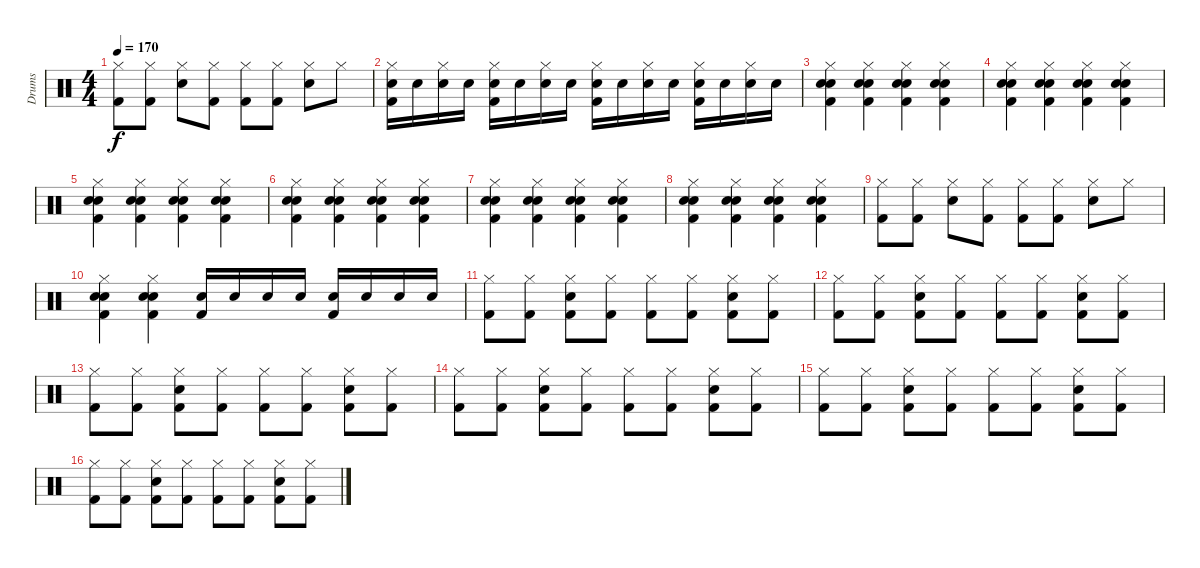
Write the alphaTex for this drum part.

\track ("Drums" "Drums") {instrument percussion}
\staff {score}
\articulation defaults
\ts (4 4)
\tempo 170
\clef neutral
\ks c
("Hi-Hat (closed)" "Kick (hit) 2").8{dy f} ("Hi-Hat (closed)" "Kick (hit) 2").8 ("Hi-Hat (closed)" "Electric Snare (hit)").8 ("Hi-Hat (closed)" "Kick (hit) 2").8 ("Hi-Hat (closed)" "Kick (hit) 2").8 ("Hi-Hat (closed)" "Kick (hit) 2").8 ("Hi-Hat (closed)" "Electric Snare (hit)").8 "Hi-Hat (closed)".8 |
("Hi-Hat (closed)" "Electric Snare (hit)" "Kick (hit) 2").16 "Electric Snare (hit)".16 ("Hi-Hat (closed)" "Electric Snare (hit)").16 "Electric Snare (hit)".16 ("Hi-Hat (closed)" "Electric Snare (hit)" "Kick (hit) 2").16 "Electric Snare (hit)".16 ("Hi-Hat (closed)" "Electric Snare (hit)").16 "Electric Snare (hit)".16 ("Hi-Hat (closed)" "Electric Snare (hit)" "Kick (hit) 2").16 "Electric Snare (hit)".16 ("Hi-Hat (closed)" "Electric Snare (hit)").16 "Electric Snare (hit)".16 ("Hi-Hat (closed)" "Electric Snare (hit)" "Kick (hit) 2").16 "Electric Snare (hit)".16 ("Hi-Hat (closed)" "Electric Snare (hit)").16 "Electric Snare (hit)".16 |
("Snare (hit) 2" "Electric Snare (hit)" "Kick (hit) 2" "Hi-Hat (closed)").4 ("Snare (hit) 2" "Electric Snare (hit)" "Kick (hit) 2" "Hi-Hat (closed)").4 ("Snare (hit) 2" "Electric Snare (hit)" "Kick (hit) 2" "Hi-Hat (closed)").4 ("Snare (hit) 2" "Electric Snare (hit)" "Kick (hit) 2" "Hi-Hat (closed)").4 |
("Snare (hit) 2" "Electric Snare (hit)" "Kick (hit) 2" "Hi-Hat (closed)").4 ("Snare (hit) 2" "Electric Snare (hit)" "Kick (hit) 2" "Hi-Hat (closed)").4 ("Snare (hit) 2" "Electric Snare (hit)" "Kick (hit) 2" "Hi-Hat (closed)").4 ("Snare (hit) 2" "Electric Snare (hit)" "Kick (hit) 2" "Hi-Hat (closed)").4 |
("Snare (hit) 2" "Electric Snare (hit)" "Kick (hit) 2" "Hi-Hat (closed)").4 ("Snare (hit) 2" "Electric Snare (hit)" "Kick (hit) 2" "Hi-Hat (closed)").4 ("Snare (hit) 2" "Electric Snare (hit)" "Kick (hit) 2" "Hi-Hat (closed)").4 ("Snare (hit) 2" "Electric Snare (hit)" "Kick (hit) 2" "Hi-Hat (closed)").4 |
("Snare (hit) 2" "Electric Snare (hit)" "Kick (hit) 2" "Hi-Hat (closed)").4 ("Snare (hit) 2" "Electric Snare (hit)" "Kick (hit) 2" "Hi-Hat (closed)").4 ("Snare (hit) 2" "Electric Snare (hit)" "Kick (hit) 2" "Hi-Hat (closed)").4 ("Snare (hit) 2" "Electric Snare (hit)" "Kick (hit) 2" "Hi-Hat (closed)").4 |
("Snare (hit) 2" "Electric Snare (hit)" "Kick (hit) 2" "Hi-Hat (closed)").4 ("Snare (hit) 2" "Electric Snare (hit)" "Kick (hit) 2" "Hi-Hat (closed)").4 ("Snare (hit) 2" "Electric Snare (hit)" "Kick (hit) 2" "Hi-Hat (closed)").4 ("Snare (hit) 2" "Electric Snare (hit)" "Kick (hit) 2" "Hi-Hat (closed)").4 |
("Snare (hit) 2" "Electric Snare (hit)" "Kick (hit) 2" "Hi-Hat (closed)").4 ("Snare (hit) 2" "Electric Snare (hit)" "Kick (hit) 2" "Hi-Hat (closed)").4 ("Snare (hit) 2" "Electric Snare (hit)" "Kick (hit) 2" "Hi-Hat (closed)").4 ("Snare (hit) 2" "Electric Snare (hit)" "Kick (hit) 2" "Hi-Hat (closed)").4 |
("Hi-Hat (closed)" "Kick (hit) 2").8 ("Hi-Hat (closed)" "Kick (hit) 2").8 ("Hi-Hat (closed)" "Electric Snare (hit)").8 ("Hi-Hat (closed)" "Kick (hit) 2").8 ("Hi-Hat (closed)" "Kick (hit) 2").8 ("Hi-Hat (closed)" "Kick (hit) 2").8 ("Hi-Hat (closed)" "Electric Snare (hit)").8 "Hi-Hat (closed)".8 |
("Snare (hit) 2" "Electric Snare (hit)" "Kick (hit) 2" "Hi-Hat (closed)").4 ("Snare (hit) 2" "Electric Snare (hit)" "Kick (hit) 2" "Hi-Hat (closed)").4 ("Electric Snare (hit)" "Kick (hit) 2").16 "Electric Snare (hit)".16 "Electric Snare (hit)".16 "Electric Snare (hit)".16 ("Electric Snare (hit)" "Kick (hit) 2").16 "Electric Snare (hit)".16 "Electric Snare (hit)".16 "Electric Snare (hit)".16 |
("Hi-Hat (closed)" "Kick (hit) 2").8 ("Hi-Hat (closed)" "Kick (hit) 2").8 ("Hi-Hat (closed)" "Electric Snare (hit)" "Kick (hit) 2").8 ("Hi-Hat (closed)" "Kick (hit) 2").8 ("Hi-Hat (closed)" "Kick (hit) 2").8 ("Hi-Hat (closed)" "Kick (hit) 2").8 ("Hi-Hat (closed)" "Electric Snare (hit)" "Kick (hit) 2").8 ("Hi-Hat (closed)" "Kick (hit) 2").8 |
("Hi-Hat (closed)" "Kick (hit) 2").8 ("Hi-Hat (closed)" "Kick (hit) 2").8 ("Hi-Hat (closed)" "Electric Snare (hit)" "Kick (hit) 2").8 ("Hi-Hat (closed)" "Kick (hit) 2").8 ("Hi-Hat (closed)" "Kick (hit) 2").8 ("Hi-Hat (closed)" "Kick (hit) 2").8 ("Hi-Hat (closed)" "Electric Snare (hit)" "Kick (hit) 2").8 ("Hi-Hat (closed)" "Kick (hit) 2").8 |
("Hi-Hat (closed)" "Kick (hit) 2").8 ("Hi-Hat (closed)" "Kick (hit) 2").8 ("Hi-Hat (closed)" "Electric Snare (hit)" "Kick (hit) 2").8 ("Hi-Hat (closed)" "Kick (hit) 2").8 ("Hi-Hat (closed)" "Kick (hit) 2").8 ("Hi-Hat (closed)" "Kick (hit) 2").8 ("Hi-Hat (closed)" "Electric Snare (hit)" "Kick (hit) 2").8 ("Hi-Hat (closed)" "Kick (hit) 2").8 |
("Hi-Hat (closed)" "Kick (hit) 2").8 ("Hi-Hat (closed)" "Kick (hit) 2").8 ("Hi-Hat (closed)" "Electric Snare (hit)" "Kick (hit) 2").8 ("Hi-Hat (closed)" "Kick (hit) 2").8 ("Hi-Hat (closed)" "Kick (hit) 2").8 ("Hi-Hat (closed)" "Kick (hit) 2").8 ("Hi-Hat (closed)" "Electric Snare (hit)" "Kick (hit) 2").8 ("Hi-Hat (closed)" "Kick (hit) 2").8 |
("Hi-Hat (closed)" "Kick (hit) 2").8 ("Hi-Hat (closed)" "Kick (hit) 2").8 ("Hi-Hat (closed)" "Electric Snare (hit)" "Kick (hit) 2").8 ("Hi-Hat (closed)" "Kick (hit) 2").8 ("Hi-Hat (closed)" "Kick (hit) 2").8 ("Hi-Hat (closed)" "Kick (hit) 2").8 ("Hi-Hat (closed)" "Electric Snare (hit)" "Kick (hit) 2").8 ("Hi-Hat (closed)" "Kick (hit) 2").8 |
("Hi-Hat (closed)" "Kick (hit) 2").8 ("Hi-Hat (closed)" "Kick (hit) 2").8 ("Hi-Hat (closed)" "Electric Snare (hit)" "Kick (hit) 2").8 ("Hi-Hat (closed)" "Kick (hit) 2").8 ("Hi-Hat (closed)" "Kick (hit) 2").8 ("Hi-Hat (closed)" "Kick (hit) 2").8 ("Hi-Hat (closed)" "Electric Snare (hit)" "Kick (hit) 2").8 ("Hi-Hat (closed)" "Kick (hit) 2").8
